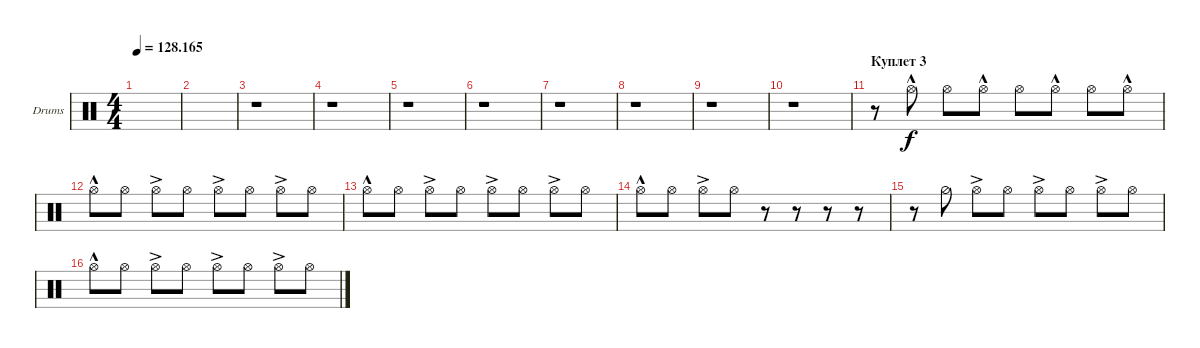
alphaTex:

\defaultSystemsLayout 4
\bracketExtendMode groupsimilarinstruments
\firstSystemTrackNameOrientation horizontal
\otherSystemsTrackNameOrientation horizontal
\track ("Drumkit" "Drums") {instrument percussion}
\staff {score}
\articulation defaults
\ts (4 4)
\tempo
128.165
\accidentals auto
\clef neutral
\ottava regular
\simile none
\ks c
|
|
r.1 |
r.1 |
r.1 |
r.1 |
r.1 |
r.1 |
r.1 |
r.1 |
\section ("" "Куплет 3")
r.8 "Hi-Hat (open)"{hac}.8 "Hi-Hat (open)".8 "Hi-Hat (open)"{hac}.8 "Hi-Hat (open)".8 "Hi-Hat (open)"{hac}.8 "Hi-Hat (open)".8 "Hi-Hat (open)"{hac}.8 |
"Hi-Hat (open)"{hac}.8 "Hi-Hat (open)".8 "Hi-Hat (open)"{ac}.8 "Hi-Hat (open)".8 "Hi-Hat (open)"{ac}.8 "Hi-Hat (open)".8 "Hi-Hat (open)"{ac}.8 "Hi-Hat (open)".8 |
"Hi-Hat (open)"{hac}.8 "Hi-Hat (open)".8 "Hi-Hat (open)"{ac}.8 "Hi-Hat (open)".8 "Hi-Hat (open)"{ac}.8 "Hi-Hat (open)".8 "Hi-Hat (open)"{ac}.8 "Hi-Hat (open)".8 |
"Hi-Hat (open)"{hac}.8 "Hi-Hat (open)".8 "Hi-Hat (open)"{ac}.8 "Hi-Hat (open)".8 r.8 r.8 r.8 r.8 |
r.8 "Hi-Hat (half)".8 "Hi-Hat (open)"{ac}.8 "Hi-Hat (open)".8 "Hi-Hat (open)"{ac}.8 "Hi-Hat (open)".8 "Hi-Hat (open)"{ac}.8 "Hi-Hat (open)".8 |
"Hi-Hat (open)"{hac}.8 "Hi-Hat (open)".8 "Hi-Hat (open)"{ac}.8 "Hi-Hat (open)".8 "Hi-Hat (open)"{ac}.8 "Hi-Hat (open)".8 "Hi-Hat (open)"{ac}.8 "Hi-Hat (open)".8
